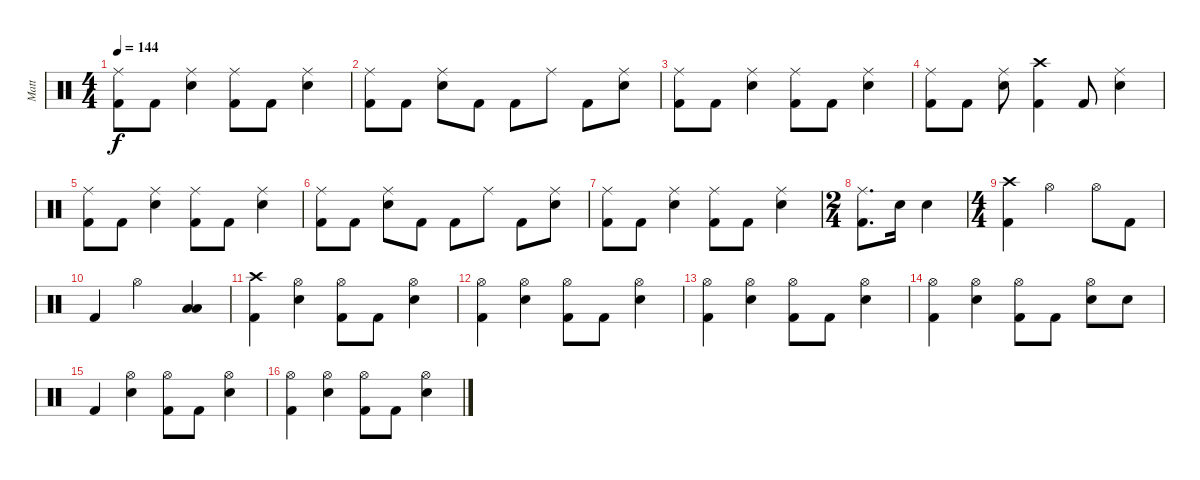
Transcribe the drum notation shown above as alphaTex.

\track ("Matt" "Matt") {instrument percussion}
\staff {score}
\articulation defaults
\ts (4 4)
\tempo 144
\clef neutral
\ks c
("Ride (middle)" "Kick (hit) 2").8{dy f} "Kick (hit) 2".8 ("Ride (middle)" "Electric Snare (hit)").4 ("Ride (middle)" "Kick (hit) 2").8 "Kick (hit) 2".8 ("Ride (middle)" "Electric Snare (hit)").4 |
("Ride (middle)" "Kick (hit) 2").8 "Kick (hit) 2".8 ("Ride (middle)" "Electric Snare (hit)").8 "Kick (hit) 2".8 "Kick (hit) 2".8 "Ride (middle)".8 "Kick (hit) 2".8 ("Ride (middle)" "Electric Snare (hit)").8 |
("Ride (middle)" "Kick (hit) 2").8 "Kick (hit) 2".8 ("Ride (middle)" "Electric Snare (hit)").4 ("Ride (middle)" "Kick (hit) 2").8 "Kick (hit) 2".8 ("Ride (middle)" "Electric Snare (hit)").4 |
("Ride (middle)" "Kick (hit) 2").8 "Kick (hit) 2".8 ("Ride (middle)" "Electric Snare (hit)").8 ("Crash high (hit)" "Kick (hit) 2").4 "Kick (hit) 2".8 ("Ride (middle)" "Electric Snare (hit)").4 |
("Ride (middle)" "Kick (hit) 2").8 "Kick (hit) 2".8 ("Ride (middle)" "Electric Snare (hit)").4 ("Ride (middle)" "Kick (hit) 2").8 "Kick (hit) 2".8 ("Ride (middle)" "Electric Snare (hit)").4 |
("Ride (middle)" "Kick (hit) 2").8 "Kick (hit) 2".8 ("Ride (middle)" "Electric Snare (hit)").8 "Kick (hit) 2".8 "Kick (hit) 2".8 "Ride (middle)".8 "Kick (hit) 2".8 ("Ride (middle)" "Electric Snare (hit)").8 |
("Ride (middle)" "Kick (hit) 2").8 "Kick (hit) 2".8 ("Ride (middle)" "Electric Snare (hit)").4 ("Ride (middle)" "Kick (hit) 2").8 "Kick (hit) 2".8 ("Ride (middle)" "Electric Snare (hit)").4 |
\ts (2 4)
("Ride (middle)" "Kick (hit) 2").8{d} "Electric Snare (hit)".16 "Electric Snare (hit)".4 |
\ts (4 4)
("Crash high (hit)" "Kick (hit) 2").4 "Hi-Hat (open)".2 "Hi-Hat (open)".8 "Kick (hit) 2".8 |
"Kick (hit) 2".4 "Hi-Hat (open)".2 ("Low Tom (hit)" "Low Floor Tom (hit)").4 |
("Crash high (hit)" "Kick (hit) 2").4 ("Hi-Hat (open)" "Electric Snare (hit)").4 ("Hi-Hat (open)" "Kick (hit) 2").8 "Kick (hit) 2".8 ("Hi-Hat (open)" "Electric Snare (hit)").4 |
("Hi-Hat (open)" "Kick (hit) 2").4 ("Hi-Hat (open)" "Electric Snare (hit)").4 ("Hi-Hat (open)" "Kick (hit) 2").8 "Kick (hit) 2".8 ("Hi-Hat (open)" "Electric Snare (hit)").4 |
("Hi-Hat (open)" "Kick (hit) 2").4 ("Hi-Hat (open)" "Electric Snare (hit)").4 ("Hi-Hat (open)" "Kick (hit) 2").8 "Kick (hit) 2".8 ("Hi-Hat (open)" "Electric Snare (hit)").4 |
("Hi-Hat (open)" "Kick (hit) 2").4 ("Hi-Hat (open)" "Electric Snare (hit)").4 ("Hi-Hat (open)" "Kick (hit) 2").8 "Kick (hit) 2".8 ("Hi-Hat (open)" "Electric Snare (hit)").8 "Electric Snare (hit)".8 |
"Kick (hit) 2".4 ("Hi-Hat (open)" "Electric Snare (hit)").4 ("Hi-Hat (open)" "Kick (hit) 2").8 "Kick (hit) 2".8 ("Hi-Hat (open)" "Electric Snare (hit)").4 |
("Hi-Hat (open)" "Kick (hit) 2").4 ("Hi-Hat (open)" "Electric Snare (hit)").4 ("Hi-Hat (open)" "Kick (hit) 2").8 "Kick (hit) 2".8 ("Hi-Hat (open)" "Electric Snare (hit)").4
